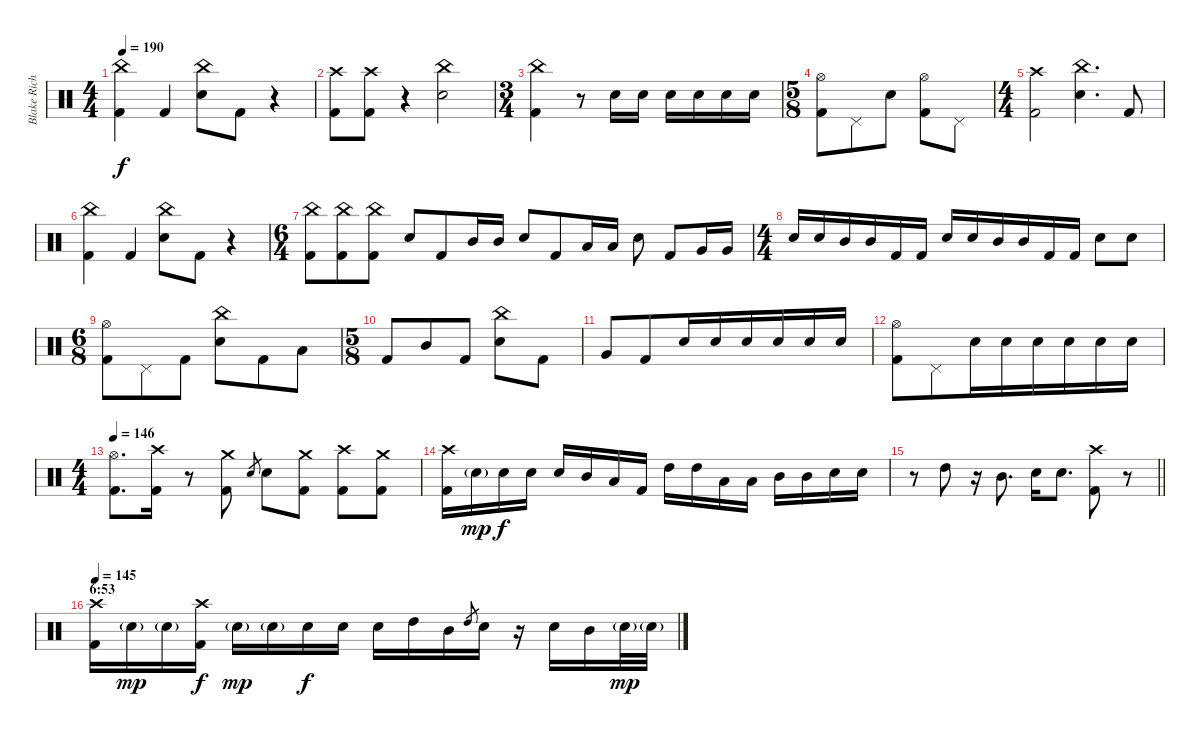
\track ("Blake Richardson" "Blake Rich") {instrument percussion}
\staff {score}
\articulation defaults
\ts (4 4)
\tempo 190
\clef neutral
\ks c
("China (hit)" "Kick (hit) 2").4{dy f} "Kick (hit) 2".4 ("China (hit)" "Electric Snare (hit)").8 "Kick (hit) 2".8 r.4 |
("Crash high (hit)" "Kick (hit) 2").8 ("Crash high (hit)" "Kick (hit) 2").8 r.4 ("China (hit)" "Electric Snare (hit)").2 |
\ts (3 4)
("Kick (hit) 2" "China (hit)").4 r.8 "Electric Snare (hit)".16 "Electric Snare (hit)".16 "Electric Snare (hit)".16 "Electric Snare (hit)".16 "Electric Snare (hit)".16 "Electric Snare (hit)".16 |
\ts (5 8)
("Hi-Hat (open)" "Kick (hit) 2").8 "Pedal Hi-Hat (hit)".8 "Electric Snare (hit)".8 ("Hi-Hat (open)" "Kick (hit) 2").8 "Pedal Hi-Hat (hit)".8 |
\ts (4 4)
("Crash high (hit)" "Kick (hit) 2").2 ("China (hit)" "Electric Snare (hit)").4{d} "Kick (hit) 2".8 |
("China (hit)" "Kick (hit) 2").4 "Kick (hit) 2".4 ("China (hit)" "Electric Snare (hit)").8 "Kick (hit) 2".8 r.4 |
\ts (6 4)
("China (hit)" "Kick (hit) 2").8 ("China (hit)" "Kick (hit) 2").8{beam merge} ("China (hit)" "Kick (hit) 2").8{beam split} "Electric Snare (hit)".8{beam merge} "Kick (hit) 2".8 "Mid Tom (hit)".16 "Mid Tom (hit)".16{beam split} "Electric Snare (hit)".8 "Kick (hit) 2".8{beam merge} "Low Tom (hit)".16 "Low Tom (hit)".16{beam split} "Electric Snare (hit)".8 "Kick (hit) 2".8 "Very Low Tom (hit)".16 "Very Low Tom (hit)".16 |
\ts (4 4)
"Electric Snare (hit)".16 "Electric Snare (hit)".16 "Mid Tom (hit)".16 "Mid Tom (hit)".16{beam merge} "Kick (hit) 2".16 "Kick (hit) 2".16{beam split} "Electric Snare (hit)".16 "Electric Snare (hit)".16{beam merge} "Mid Tom (hit)".16 "Mid Tom (hit)".16 "Kick (hit) 2".16 "Kick (hit) 2".16 "Electric Snare (hit)".8 "Electric Snare (hit)".8 |
\ts (6 8)
("Hi-Hat (open)" "Kick (hit) 2").8 "Pedal Hi-Hat (hit)".8 "Kick (hit) 2".8 ("China (hit)" "Electric Snare (hit)").8 "Kick (hit) 2".8 "Low Tom (hit)".8 |
\ts (5 8)
"Kick (hit) 2".8 "Mid Tom (hit)".8 "Kick (hit) 2".8 ("China (hit)" "Electric Snare (hit)").8 "Kick (hit) 2".8 |
"Very Low Tom (hit)".8 "Kick (hit) 2".8 "Electric Snare (hit)".16 "Electric Snare (hit)".16{beam merge} "Electric Snare (hit)".16 "Electric Snare (hit)".16{beam merge} "Electric Snare (hit)".16 "Electric Snare (hit)".16 |
("Hi-Hat (open)" "Kick (hit) 2").8 "Pedal Hi-Hat (hit)".8 "Electric Snare (hit)".16 "Electric Snare (hit)".16{beam merge} "Electric Snare (hit)".16 "Electric Snare (hit)".16{beam merge} "Electric Snare (hit)".16 "Electric Snare (hit)".16 |
\ts (4 4)
\tempo 146
("Hi-Hat (open)" "Kick (hit) 2").8{d} ("Crash high (hit)" "Kick (hit) 2").16 r.8 ("Crash medium (hit)" "Kick (hit) 2").8 "Electric Snare (hit)".8{gr} "Electric Snare (hit)".8 ("Crash medium (hit)" "Kick (hit) 2").8 ("Crash high (hit)" "Kick (hit) 2").8 ("Crash medium (hit)" "Kick (hit) 2").8 |
("Crash high (hit)" "Kick (hit) 2").16 "Electric Snare (hit)"{g}.16{dy mp} "Electric Snare (hit)".16{dy f} "Electric Snare (hit)".16 "Electric Snare (hit)".16 "Mid Tom (hit)".16 "Low Tom (hit)".16 "Kick (hit) 2".16 "High Tom (hit)".16 "High Tom (hit)".16 "Low Tom (hit)".16 "Low Tom (hit)".16 "Mid Tom (hit)".16 "Mid Tom (hit)".16 "Electric Snare (hit)".16 "Electric Snare (hit)".16 |
\barLineRight lightlight
r.8 "High Tom (hit)".8 r.16 "Mid Tom (hit)".8{d} "Electric Snare (hit)".16 "Electric Snare (hit)".8{d} ("Crash high (hit)" "Kick (hit) 2").8 r.8{volume 0} |
\section ("" "6:53")
\tempo 145
("Crash high (hit)" "Kick (hit) 2").16{volume 13} "Electric Snare (hit)"{g}.16{dy mp} "Electric Snare (hit)"{g}.16 ("Crash high (hit)" "Kick (hit) 2").16{dy f} "Electric Snare (hit)"{g}.16{dy mp} "Electric Snare (hit)"{g}.16 "Electric Snare (hit)".16{dy f} "Electric Snare (hit)".16 "Electric Snare (hit)".16 "High Tom (hit)".16 "Mid Tom (hit)".16 "High Tom (hit)".8{gr} "Electric Snare (hit)".16 r.16 "Electric Snare (hit)".16 "Mid Tom (hit)".16 "Electric Snare (hit)"{g}.32{dy mp} "Electric Snare (hit)"{g}.32
